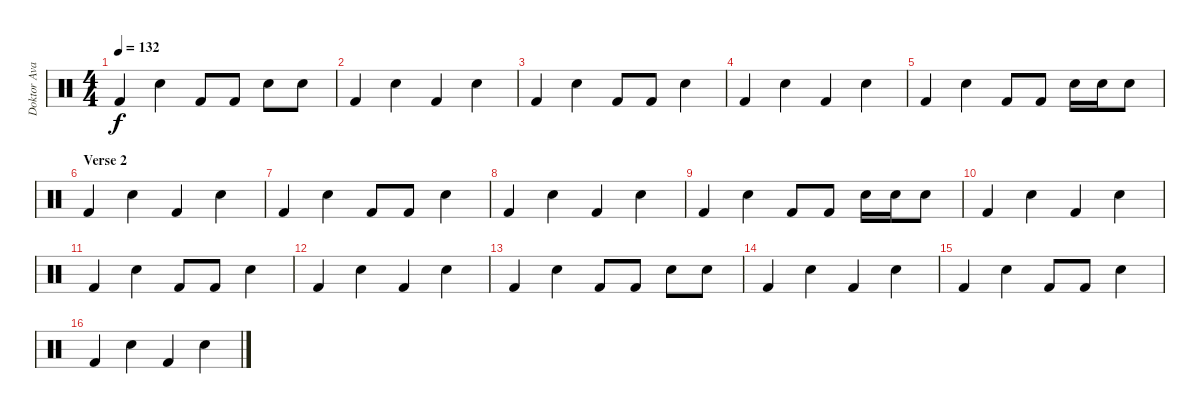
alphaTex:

\track ("Doktor Avalanche" "Doktor Ava") {instrument percussion}
\staff {score}
\articulation defaults
\ts (4 4)
\tempo 132
\clef neutral
\ks c "Kick (hit) 2".4{dy f} "Electric Snare (hit)".4 "Kick (hit) 2".8 "Kick (hit) 2".8 "Electric Snare (hit)".8 "Electric Snare (hit)".8
|
"Kick (hit) 2".4 "Electric Snare (hit)".4 "Kick (hit) 2".4 "Electric Snare (hit)".4 |
"Kick (hit) 2".4 "Electric Snare (hit)".4 "Kick (hit) 2".8 "Kick (hit) 2".8 "Electric Snare (hit)".4 |
"Kick (hit) 2".4 "Electric Snare (hit)".4 "Kick (hit) 2".4 "Electric Snare (hit)".4 |
"Kick (hit) 2".4 "Electric Snare (hit)".4 "Kick (hit) 2".8 "Kick (hit) 2".8 "Electric Snare (hit)".16 "Electric Snare (hit)".16 "Electric Snare (hit)".8 |
\section ("" "Verse 2")
"Kick (hit) 2".4 "Electric Snare (hit)".4 "Kick (hit) 2".4 "Electric Snare (hit)".4 |
"Kick (hit) 2".4 "Electric Snare (hit)".4 "Kick (hit) 2".8 "Kick (hit) 2".8 "Electric Snare (hit)".4 |
"Kick (hit) 2".4 "Electric Snare (hit)".4 "Kick (hit) 2".4 "Electric Snare (hit)".4 |
"Kick (hit) 2".4 "Electric Snare (hit)".4 "Kick (hit) 2".8 "Kick (hit) 2".8 "Electric Snare (hit)".16 "Electric Snare (hit)".16 "Electric Snare (hit)".8 |
"Kick (hit) 2".4 "Electric Snare (hit)".4 "Kick (hit) 2".4 "Electric Snare (hit)".4 |
"Kick (hit) 2".4 "Electric Snare (hit)".4 "Kick (hit) 2".8 "Kick (hit) 2".8 "Electric Snare (hit)".4 |
"Kick (hit) 2".4 "Electric Snare (hit)".4 "Kick (hit) 2".4 "Electric Snare (hit)".4 |
"Kick (hit) 2".4 "Electric Snare (hit)".4 "Kick (hit) 2".8 "Kick (hit) 2".8 "Electric Snare (hit)".8 "Electric Snare (hit)".8 |
"Kick (hit) 2".4 "Electric Snare (hit)".4 "Kick (hit) 2".4 "Electric Snare (hit)".4 |
"Kick (hit) 2".4 "Electric Snare (hit)".4 "Kick (hit) 2".8 "Kick (hit) 2".8 "Electric Snare (hit)".4 |
"Kick (hit) 2".4 "Electric Snare (hit)".4 "Kick (hit) 2".4 "Electric Snare (hit)".4
